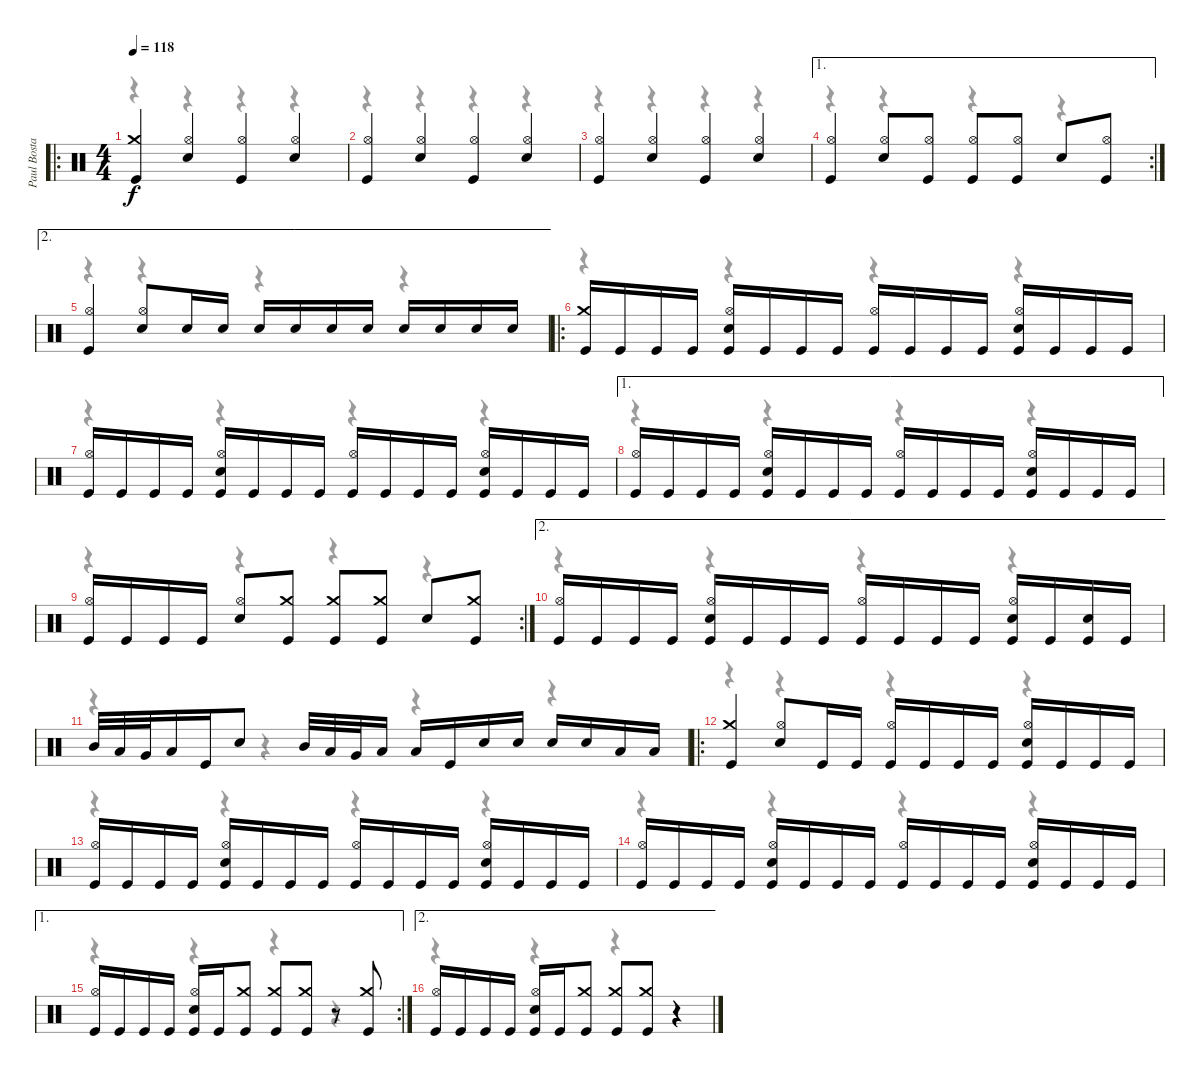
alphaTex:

\track ("Paul Bostaph" "Paul Bosta") {instrument percussion}
\staff {score}
\articulation defaults
\voice
\ro
\ts (4 4)
\tempo 118
\clef neutral
\ks c
("Crash medium (hit)" "Kick (hit)").4{dy f} ("Hi-Hat (open)" "Snare (hit) 2").4 ("Hi-Hat (open)" "Kick (hit)").4 ("Hi-Hat (open)" "Snare (hit) 2").4 |
("Hi-Hat (open)" "Kick (hit)").4 ("Hi-Hat (open)" "Snare (hit) 2").4 ("Hi-Hat (open)" "Kick (hit)").4 ("Hi-Hat (open)" "Snare (hit) 2").4 |
("Hi-Hat (open)" "Kick (hit)").4 ("Hi-Hat (open)" "Snare (hit) 2").4 ("Hi-Hat (open)" "Kick (hit)").4 ("Hi-Hat (open)" "Snare (hit) 2").4 |
\ae 1
\rc 2
("Hi-Hat (open)" "Kick (hit)").4 ("Hi-Hat (open)" "Snare (hit) 2").8 ("Hi-Hat (open)" "Kick (hit)").8 ("Hi-Hat (open)" "Kick (hit)").8 ("Hi-Hat (open)" "Kick (hit)").8 "Snare (hit) 2".8 ("Hi-Hat (open)" "Kick (hit)").8 |
\ae 2
("Hi-Hat (open)" "Kick (hit)").4 ("Hi-Hat (open)" "Snare (hit) 2").8 "Snare (hit) 2".16 "Snare (hit) 2".16 "Snare (hit) 2".16 "Snare (hit) 2".16 "Snare (hit) 2".16 "Snare (hit) 2".16 "Snare (hit) 2".16 "Snare (hit) 2".16 "Snare (hit) 2".16 "Snare (hit) 2".16 |
\ro
("Crash medium (hit)" "Kick (hit)").16 "Kick (hit)".16 "Kick (hit)".16 "Kick (hit)".16 ("Hi-Hat (open)" "Snare (hit) 2" "Kick (hit)").16 "Kick (hit)".16 "Kick (hit)".16 "Kick (hit)".16 ("Hi-Hat (open)" "Kick (hit)").16 "Kick (hit)".16 "Kick (hit)".16 "Kick (hit)".16 ("Hi-Hat (open)" "Snare (hit) 2" "Kick (hit)").16 "Kick (hit)".16 "Kick (hit)".16 "Kick (hit)".16 |
("Hi-Hat (open)" "Kick (hit)").16 "Kick (hit)".16 "Kick (hit)".16 "Kick (hit)".16 ("Hi-Hat (open)" "Snare (hit) 2" "Kick (hit)").16 "Kick (hit)".16 "Kick (hit)".16 "Kick (hit)".16 ("Hi-Hat (open)" "Kick (hit)").16 "Kick (hit)".16 "Kick (hit)".16 "Kick (hit)".16 ("Hi-Hat (open)" "Snare (hit) 2" "Kick (hit)").16 "Kick (hit)".16 "Kick (hit)".16 "Kick (hit)".16 |
\ae 1
("Hi-Hat (open)" "Kick (hit)").16 "Kick (hit)".16 "Kick (hit)".16 "Kick (hit)".16 ("Hi-Hat (open)" "Snare (hit) 2" "Kick (hit)").16 "Kick (hit)".16 "Kick (hit)".16 "Kick (hit)".16 ("Hi-Hat (open)" "Kick (hit)").16 "Kick (hit)".16 "Kick (hit)".16 "Kick (hit)".16 ("Hi-Hat (open)" "Snare (hit) 2" "Kick (hit)").16 "Kick (hit)".16 "Kick (hit)".16 "Kick (hit)".16 |
\rc 2
("Hi-Hat (open)" "Kick (hit)").16 "Kick (hit)".16 "Kick (hit)".16 "Kick (hit)".16 ("Hi-Hat (open)" "Snare (hit) 2").8 ("Crash medium (hit)" "Kick (hit)").8 ("Crash medium (hit)" "Kick (hit)").8 ("Crash medium (hit)" "Kick (hit)").8 "Snare (hit) 2".8 ("Crash medium (hit)" "Kick (hit)").8 |
\ae 2
("Hi-Hat (open)" "Kick (hit)").16 "Kick (hit)".16 "Kick (hit)".16 "Kick (hit)".16 ("Hi-Hat (open)" "Snare (hit) 2" "Kick (hit)").16 "Kick (hit)".16 "Kick (hit)".16 "Kick (hit)".16 ("Hi-Hat (open)" "Kick (hit)").16 "Kick (hit)".16 "Kick (hit)".16 "Kick (hit)".16 ("Hi-Hat (open)" "Snare (hit) 2" "Kick (hit)").16 "Kick (hit)".16 ("Snare (hit) 2" "Kick (hit)").16 "Kick (hit)".16 |
"Mid Tom (hit)".32 "Low Tom (hit)".32 "Very Low Tom (hit)".32 "Low Floor Tom (hit)".16 "Kick (hit)".16 "Snare (hit) 2".8 "Mid Tom (hit)".32 "Low Tom (hit)".32 "Very Low Tom (hit)".32 "Low Floor Tom (hit)".16 "Low Floor Tom (hit)".16 "Kick (hit)".16 "Snare (hit) 2".16 "Snare (hit) 2".16 "Snare (hit) 2".16 "Snare (hit) 2".16 "Low Floor Tom (hit)".16 "Low Floor Tom (hit)".16 |
\ro
("Crash medium (hit)" "Kick (hit)").4 ("Hi-Hat (open)" "Snare (hit) 2").8 "Kick (hit)".16 "Kick (hit)".16 ("Hi-Hat (open)" "Kick (hit)").16 "Kick (hit)".16 "Kick (hit)".16 "Kick (hit)".16 ("Hi-Hat (open)" "Snare (hit) 2" "Kick (hit)").16 "Kick (hit)".16 "Kick (hit)".16 "Kick (hit)".16 |
("Hi-Hat (open)" "Kick (hit)").16 "Kick (hit)".16 "Kick (hit)".16 "Kick (hit)".16 ("Hi-Hat (open)" "Snare (hit) 2" "Kick (hit)").16 "Kick (hit)".16 "Kick (hit)".16 "Kick (hit)".16 ("Hi-Hat (open)" "Kick (hit)").16 "Kick (hit)".16 "Kick (hit)".16 "Kick (hit)".16 ("Hi-Hat (open)" "Snare (hit) 2" "Kick (hit)").16 "Kick (hit)".16 "Kick (hit)".16 "Kick (hit)".16 |
("Hi-Hat (open)" "Kick (hit)").16 "Kick (hit)".16 "Kick (hit)".16 "Kick (hit)".16 ("Hi-Hat (open)" "Snare (hit) 2" "Kick (hit)").16 "Kick (hit)".16 "Kick (hit)".16 "Kick (hit)".16 ("Hi-Hat (open)" "Kick (hit)").16 "Kick (hit)".16 "Kick (hit)".16 "Kick (hit)".16 ("Hi-Hat (open)" "Snare (hit) 2" "Kick (hit)").16 "Kick (hit)".16 "Kick (hit)".16 "Kick (hit)".16 |
\ae 1
\rc 2
("Hi-Hat (open)" "Kick (hit)").16 "Kick (hit)".16 "Kick (hit)".16 "Kick (hit)".16 ("Hi-Hat (open)" "Snare (hit) 2" "Kick (hit)").16 "Kick (hit)".16 ("Crash medium (hit)" "Kick (hit)").8 ("Crash medium (hit)" "Kick (hit)").8 ("Crash medium (hit)" "Kick (hit)").8 r.8 ("Crash medium (hit)" "Kick (hit)").8 |
\ae 2
("Hi-Hat (open)" "Kick (hit)").16 "Kick (hit)".16 "Kick (hit)".16 "Kick (hit)".16 ("Hi-Hat (open)" "Snare (hit) 2" "Kick (hit)").16 "Kick (hit)".16 ("Crash medium (hit)" "Kick (hit)").8 ("Crash medium (hit)" "Kick (hit)").8 ("Crash medium (hit)" "Kick (hit)").8 r.4
\voice
\clef neutral
\ottava regular
\simile none
\ks c
r.4{dy f} r.4 r.4 r.4 |
r.4 r.4 r.4 r.4 |
r.4 r.4 r.4 r.4 |
r.4 r.4 r.4 r.4 |
r.4 r.4 r.4 r.4 |
r.4 r.4 r.4 r.4 |
r.4 r.4 r.4 r.4 |
r.4 r.4 r.4 r.4 |
r.4 r.4 r.4 r.4 |
r.4 r.4 r.4 r.4 |
r.4 r.4 r.4 r.4 |
r.4 r.4 r.4 r.4 |
r.4 r.4 r.4 r.4 |
r.4 r.4 r.4 r.4 |
r.4 r.4 r.4 r.4 |
r.4 r.4 r.4 r.4
